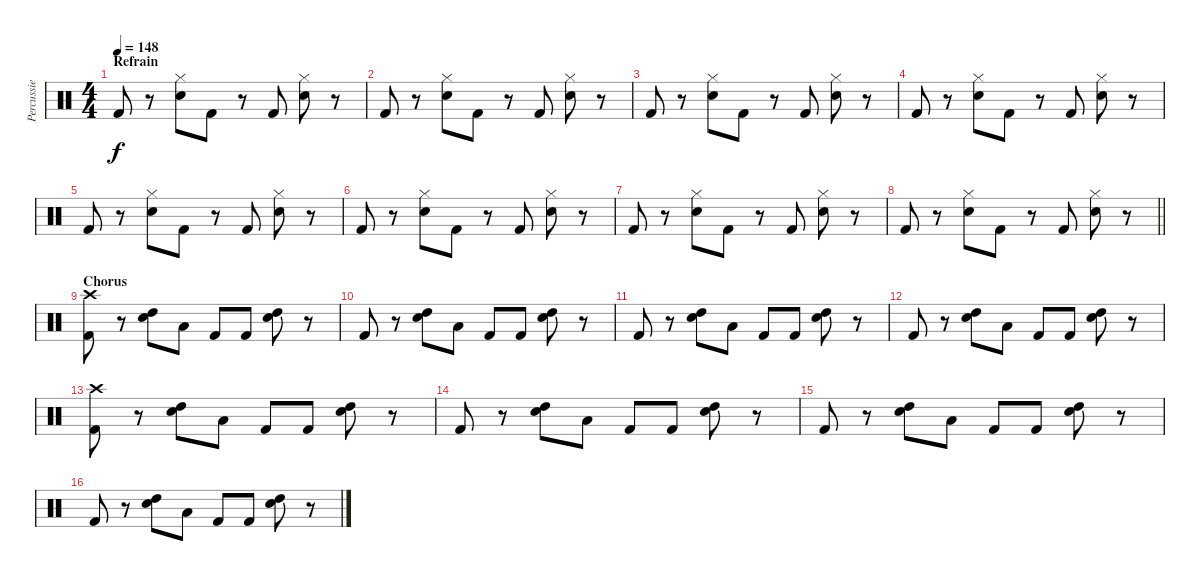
\track ("Percussie" "Percussie") {instrument percussion}
\staff {score}
\articulation defaults
\ts (4 4)
\section ("" "Refrain")
\tempo 148
\clef neutral
\ks c "Kick (hit) 2".8{dy f}
r.8 ("Hi-Hat (closed)" "Electric Snare (hit)").8 "Kick (hit) 2".8 r.8 "Kick (hit) 2".8 ("Hi-Hat (closed)" "Electric Snare (hit)").8 r.8 |
"Kick (hit) 2".8 r.8 ("Hi-Hat (closed)" "Electric Snare (hit)").8 "Kick (hit) 2".8 r.8 "Kick (hit) 2".8 ("Hi-Hat (closed)" "Electric Snare (hit)").8 r.8 |
"Kick (hit) 2".8 r.8 ("Hi-Hat (closed)" "Electric Snare (hit)").8 "Kick (hit) 2".8 r.8 "Kick (hit) 2".8 ("Hi-Hat (closed)" "Electric Snare (hit)").8 r.8 |
"Kick (hit) 2".8 r.8 ("Hi-Hat (closed)" "Electric Snare (hit)").8 "Kick (hit) 2".8 r.8 "Kick (hit) 2".8 ("Hi-Hat (closed)" "Electric Snare (hit)").8 r.8 |
"Kick (hit) 2".8 r.8 ("Hi-Hat (closed)" "Electric Snare (hit)").8 "Kick (hit) 2".8 r.8 "Kick (hit) 2".8 ("Hi-Hat (closed)" "Electric Snare (hit)").8 r.8 |
"Kick (hit) 2".8 r.8 ("Hi-Hat (closed)" "Electric Snare (hit)").8 "Kick (hit) 2".8 r.8 "Kick (hit) 2".8 ("Hi-Hat (closed)" "Electric Snare (hit)").8 r.8 |
"Kick (hit) 2".8 r.8 ("Hi-Hat (closed)" "Electric Snare (hit)").8 "Kick (hit) 2".8 r.8 "Kick (hit) 2".8 ("Hi-Hat (closed)" "Electric Snare (hit)").8 r.8 |
\barLineRight lightlight "Kick (hit) 2".8
r.8 ("Hi-Hat (closed)" "Electric Snare (hit)").8 "Kick (hit) 2".8 r.8 "Kick (hit) 2".8 ("Hi-Hat (closed)" "Electric Snare (hit)").8 r.8 |
\section ("" "Chorus")
("Crash high (hit)" "Kick (hit) 2").8 r.8 ("Electric Snare (hit)" "High Tom (hit)").8 "Low Tom (hit)".8 "Kick (hit) 2".8 "Kick (hit) 2".8 ("Electric Snare (hit)" "High Tom (hit)").8 r.8 |
"Kick (hit) 2".8 r.8 ("Electric Snare (hit)" "High Tom (hit)").8 "Low Tom (hit)".8 "Kick (hit) 2".8 "Kick (hit) 2".8 ("Electric Snare (hit)" "High Tom (hit)").8 r.8 |
"Kick (hit) 2".8 r.8 ("Electric Snare (hit)" "High Tom (hit)").8 "Low Tom (hit)".8 "Kick (hit) 2".8 "Kick (hit) 2".8 ("Electric Snare (hit)" "High Tom (hit)").8 r.8 |
"Kick (hit) 2".8 r.8 ("Electric Snare (hit)" "High Tom (hit)").8 "Low Tom (hit)".8 "Kick (hit) 2".8 "Kick (hit) 2".8 ("Electric Snare (hit)" "High Tom (hit)").8 r.8 |
("Crash high (hit)" "Kick (hit) 2").8 r.8 ("Electric Snare (hit)" "High Tom (hit)").8 "Low Tom (hit)".8 "Kick (hit) 2".8 "Kick (hit) 2".8 ("Electric Snare (hit)" "High Tom (hit)").8 r.8 |
"Kick (hit) 2".8 r.8 ("Electric Snare (hit)" "High Tom (hit)").8 "Low Tom (hit)".8 "Kick (hit) 2".8 "Kick (hit) 2".8 ("Electric Snare (hit)" "High Tom (hit)").8 r.8 |
"Kick (hit) 2".8 r.8 ("Electric Snare (hit)" "High Tom (hit)").8 "Low Tom (hit)".8 "Kick (hit) 2".8 "Kick (hit) 2".8 ("Electric Snare (hit)" "High Tom (hit)").8 r.8 |
"Kick (hit) 2".8 r.8 ("Electric Snare (hit)" "High Tom (hit)").8 "Low Tom (hit)".8 "Kick (hit) 2".8 "Kick (hit) 2".8 ("Electric Snare (hit)" "High Tom (hit)").8 r.8
